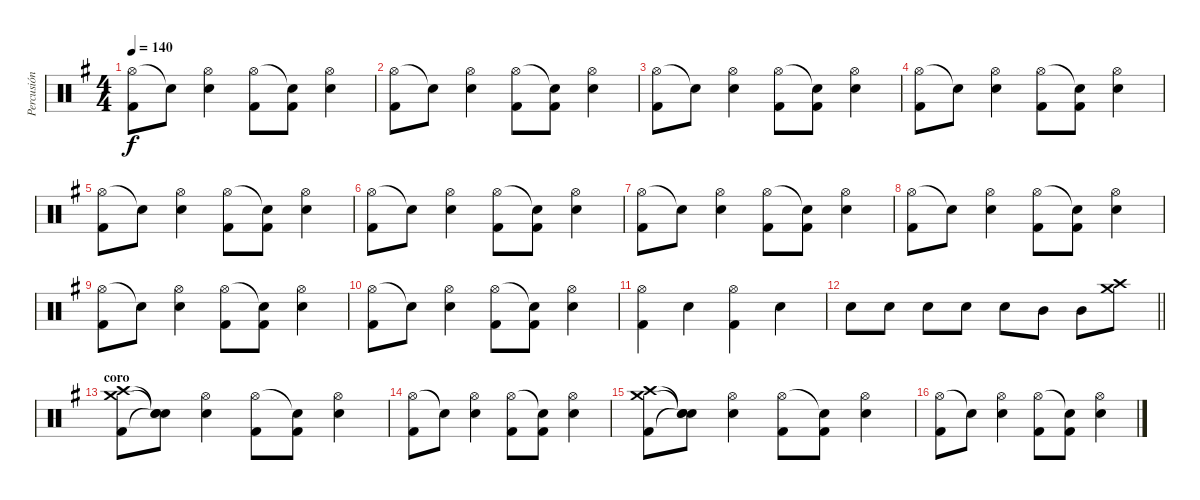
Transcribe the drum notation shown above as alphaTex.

\track ("Percusión" "Percusión") {instrument percussion}
\staff {score}
\articulation defaults
\ts (4 4)
\tempo 140
\clef neutral
\ks g
("Hi-Hat (open)" "Kick (hit) 2").8{dy f} "Snare (hit)"{t}.8 ("Hi-Hat (open)" "Electric Snare (hit)").4 ("Hi-Hat (open)" "Kick (hit) 2").8 ("Snare (hit)"{t} "Kick (hit) 2").8 ("Hi-Hat (open)" "Electric Snare (hit)").4 |
("Hi-Hat (open)" "Kick (hit) 2").8 "Snare (hit)"{t}.8 ("Hi-Hat (open)" "Electric Snare (hit)").4 ("Hi-Hat (open)" "Kick (hit) 2").8 ("Snare (hit)"{t} "Kick (hit) 2").8 ("Hi-Hat (open)" "Electric Snare (hit)").4 |
("Hi-Hat (open)" "Kick (hit) 2").8 "Snare (hit)"{t}.8 ("Hi-Hat (open)" "Electric Snare (hit)").4 ("Hi-Hat (open)" "Kick (hit) 2").8 ("Snare (hit)"{t} "Kick (hit) 2").8 ("Hi-Hat (open)" "Electric Snare (hit)").4 |
("Hi-Hat (open)" "Kick (hit) 2").8 "Snare (hit)"{t}.8 ("Hi-Hat (open)" "Electric Snare (hit)").4 ("Hi-Hat (open)" "Kick (hit) 2").8 ("Snare (hit)"{t} "Kick (hit) 2").8 ("Hi-Hat (open)" "Electric Snare (hit)").4 |
("Hi-Hat (open)" "Kick (hit) 2").8 "Snare (hit)"{t}.8 ("Hi-Hat (open)" "Electric Snare (hit)").4 ("Hi-Hat (open)" "Kick (hit) 2").8 ("Snare (hit)"{t} "Kick (hit) 2").8 ("Hi-Hat (open)" "Electric Snare (hit)").4 |
("Hi-Hat (open)" "Kick (hit) 2").8 "Snare (hit)"{t}.8 ("Hi-Hat (open)" "Electric Snare (hit)").4 ("Hi-Hat (open)" "Kick (hit) 2").8 ("Snare (hit)"{t} "Kick (hit) 2").8 ("Hi-Hat (open)" "Electric Snare (hit)").4 |
("Hi-Hat (open)" "Kick (hit) 2").8 "Snare (hit)"{t}.8 ("Hi-Hat (open)" "Electric Snare (hit)").4 ("Hi-Hat (open)" "Kick (hit) 2").8 ("Snare (hit)"{t} "Kick (hit) 2").8 ("Hi-Hat (open)" "Electric Snare (hit)").4 |
("Hi-Hat (open)" "Kick (hit) 2").8 "Snare (hit)"{t}.8 ("Hi-Hat (open)" "Electric Snare (hit)").4 ("Hi-Hat (open)" "Kick (hit) 2").8 ("Snare (hit)"{t} "Kick (hit) 2").8 ("Hi-Hat (open)" "Electric Snare (hit)").4 |
("Hi-Hat (open)" "Kick (hit) 2").8 "Snare (hit)"{t}.8 ("Hi-Hat (open)" "Electric Snare (hit)").4 ("Hi-Hat (open)" "Kick (hit) 2").8 ("Snare (hit)"{t} "Kick (hit) 2").8 ("Hi-Hat (open)" "Electric Snare (hit)").4 |
("Hi-Hat (open)" "Kick (hit) 2").8 "Snare (hit)"{t}.8 ("Hi-Hat (open)" "Electric Snare (hit)").4 ("Hi-Hat (open)" "Kick (hit) 2").8 ("Snare (hit)"{t} "Kick (hit) 2").8 ("Hi-Hat (open)" "Electric Snare (hit)").4 |
("Hi-Hat (open)" "Kick (hit) 2").4 "Electric Snare (hit)".4 ("Hi-Hat (open)" "Kick (hit) 2").4 "Electric Snare (hit)".4 |
\barLineRight lightlight "Electric Snare (hit)".8 "Electric Snare (hit)".8 "Electric Snare (hit)".8 "Electric Snare (hit)".8 "Electric Snare (hit)".8 "Mid Tom (hit)".8 "Mid Tom (hit)".8
("Crash medium (hit)" "Crash high (hit)").8 |
\section ("" "coro")
("Crash medium (hit)" "Crash high (hit)" "Kick (hit) 2").8 ("Snare (hit)"{t} "Snare (hit)"{t} "Snare (hit)"{t}).8 ("Hi-Hat (open)" "Electric Snare (hit)").4 ("Hi-Hat (open)" "Kick (hit) 2").8 ("Snare (hit)"{t} "Kick (hit) 2").8 ("Hi-Hat (open)" "Electric Snare (hit)").4 |
("Hi-Hat (open)" "Kick (hit) 2").8 "Snare (hit)"{t}.8 ("Hi-Hat (open)" "Electric Snare (hit)").4 ("Hi-Hat (open)" "Kick (hit) 2").8 ("Snare (hit)"{t} "Kick (hit) 2").8 ("Hi-Hat (open)" "Electric Snare (hit)").4 |
("Crash medium (hit)" "Crash high (hit)" "Kick (hit) 2").8 ("Snare (hit)"{t} "Snare (hit)"{t} "Snare (hit)"{t}).8 ("Hi-Hat (open)" "Electric Snare (hit)").4 ("Hi-Hat (open)" "Kick (hit) 2").8 ("Snare (hit)"{t} "Kick (hit) 2").8 ("Hi-Hat (open)" "Electric Snare (hit)").4 |
("Hi-Hat (open)" "Kick (hit) 2").8 "Snare (hit)"{t}.8 ("Hi-Hat (open)" "Electric Snare (hit)").4 ("Hi-Hat (open)" "Kick (hit) 2").8 ("Snare (hit)"{t} "Kick (hit) 2").8 ("Hi-Hat (open)" "Electric Snare (hit)").4
